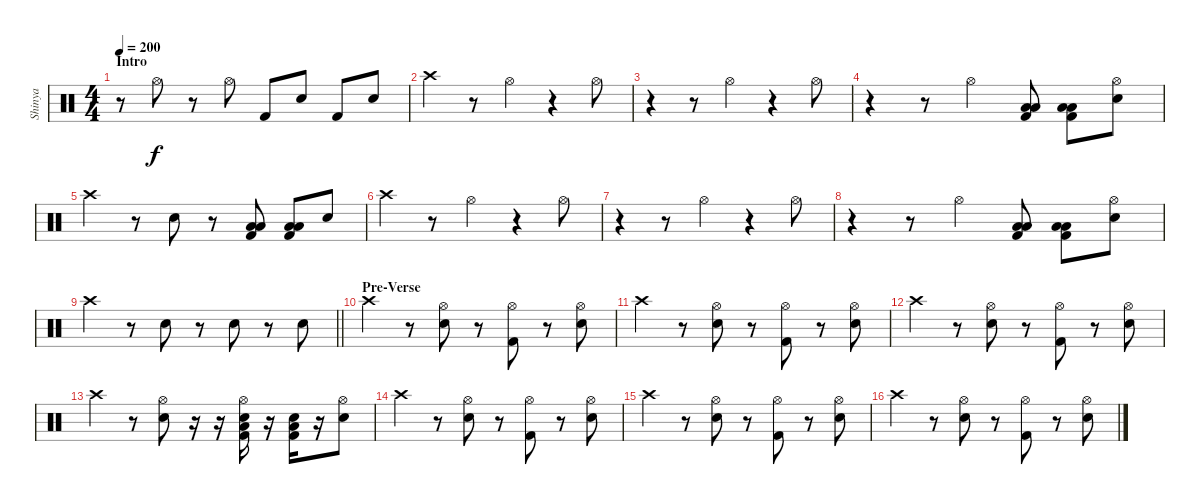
\track ("Shinya" "Shinya") {instrument percussion}
\staff {score}
\articulation defaults
\ts (4 4)
\section ("" "Intro")
\tempo 200
\clef neutral
\ks c
r.8{dy f} "Hi-Hat (open)".8 r.8 "Hi-Hat (open)".8 "Kick (hit) 2".8 "Electric Snare (hit)".8 "Kick (hit) 2".8 "Electric Snare (hit)".8 |
"Crash high (hit)".4 r.8 "Hi-Hat (open)".4 r.4 "Hi-Hat (open)".8 |
r.4 r.8 "Hi-Hat (open)".4 r.4 "Hi-Hat (open)".8 |
r.4 r.8 "Hi-Hat (open)".4 ("Kick (hit) 2" "Low Tom (hit)" "Low Tom (hit)").8 ("Kick (hit) 2" "Low Tom (hit)" "Low Tom (hit)").8 ("Electric Snare (hit)" "Hi-Hat (open)").8 |
"Crash high (hit)".4 r.8 "Electric Snare (hit)".8 r.8 ("Kick (hit) 2" "Low Tom (hit)" "Low Tom (hit)").8 ("Kick (hit) 2" "Low Tom (hit)" "Low Tom (hit)").8 "Electric Snare (hit)".8 |
"Crash high (hit)".4 r.8 "Hi-Hat (open)".4 r.4 "Hi-Hat (open)".8 |
r.4 r.8 "Hi-Hat (open)".4 r.4 "Hi-Hat (open)".8 |
r.4 r.8 "Hi-Hat (open)".4 ("Kick (hit) 2" "Low Tom (hit)" "Low Tom (hit)").8 ("Kick (hit) 2" "Low Tom (hit)" "Low Tom (hit)").8 ("Electric Snare (hit)" "Hi-Hat (open)").8 |
\barLineRight lightlight "Crash high (hit)".4
r.8 "Electric Snare (hit)".8 r.8 "Electric Snare (hit)".8 r.8 "Electric Snare (hit)".8 |
\section ("" "Pre-Verse")
"Crash high (hit)".4 r.8 ("Hi-Hat (open)" "Electric Snare (hit)").8 r.8 ("Hi-Hat (open)" "Kick (hit) 2").8 r.8 ("Hi-Hat (open)" "Electric Snare (hit)").8 |
"Crash high (hit)".4 r.8 ("Hi-Hat (open)" "Electric Snare (hit)").8 r.8 ("Hi-Hat (open)" "Kick (hit) 2").8 r.8 ("Hi-Hat (open)" "Electric Snare (hit)").8 |
"Crash high (hit)".4 r.8 ("Hi-Hat (open)" "Electric Snare (hit)").8 r.8 ("Hi-Hat (open)" "Kick (hit) 2").8 r.8 ("Hi-Hat (open)" "Electric Snare (hit)").8 |
"Crash high (hit)".4 r.8 ("Hi-Hat (open)" "Electric Snare (hit)").8 r.16 r.16 ("Hi-Hat (open)" "Kick (hit) 2" "Electric Snare (hit)" "Low Tom (hit)").16 r.16 ("Kick (hit) 2" "Electric Snare (hit)" "Low Tom (hit)").16 r.16 ("Hi-Hat (open)" "Electric Snare (hit)").8 |
"Crash high (hit)".4 r.8 ("Hi-Hat (open)" "Electric Snare (hit)").8 r.8 ("Hi-Hat (open)" "Kick (hit) 2").8 r.8 ("Hi-Hat (open)" "Electric Snare (hit)").8 |
"Crash high (hit)".4 r.8 ("Hi-Hat (open)" "Electric Snare (hit)").8 r.8 ("Hi-Hat (open)" "Kick (hit) 2").8 r.8 ("Hi-Hat (open)" "Electric Snare (hit)").8 |
"Crash high (hit)".4 r.8 ("Hi-Hat (open)" "Electric Snare (hit)").8 r.8 ("Hi-Hat (open)" "Kick (hit) 2").8 r.8 ("Hi-Hat (open)" "Electric Snare (hit)").8
